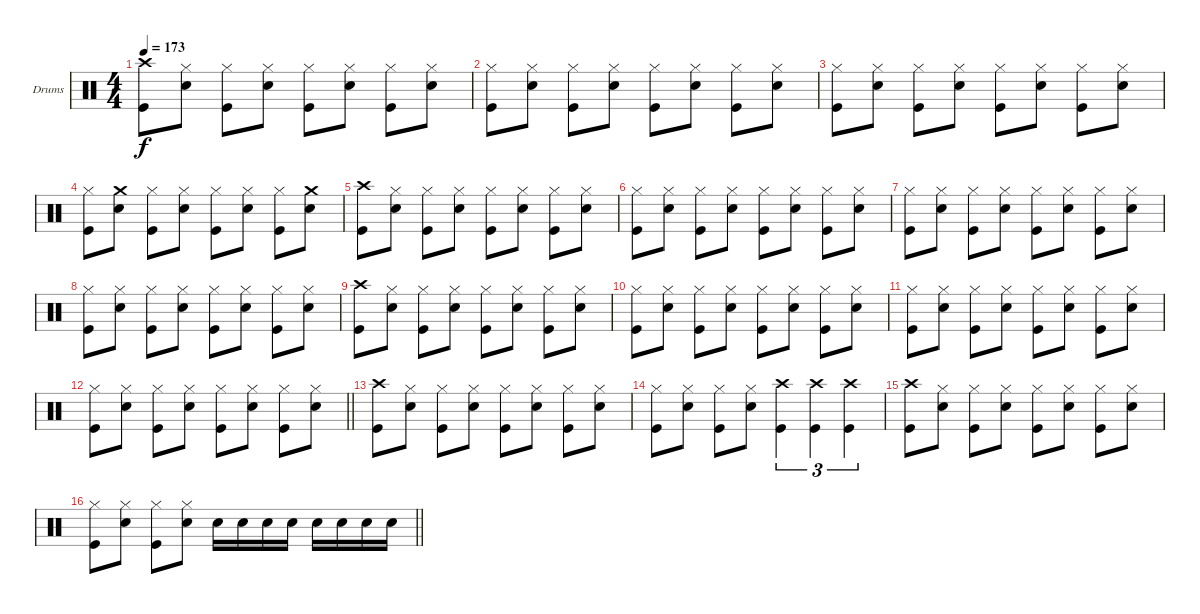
\bracketExtendMode groupsimilarinstruments
\firstSystemTrackNameOrientation horizontal
\otherSystemsTrackNameOrientation horizontal
\track ("Drums" "Drums") {instrument percussion}
\staff {score}
\articulation defaults
\ts (4 4)
\tempo 173
\clef neutral
\ks c
("Crash high (hit)" "Kick (hit)").8{dy f} ("Hi-Hat (closed)" "Snare (hit) 2").8 ("Hi-Hat (closed)" "Kick (hit)").8 ("Hi-Hat (closed)" "Snare (hit) 2").8 ("Hi-Hat (closed)" "Kick (hit)").8 ("Hi-Hat (closed)" "Snare (hit) 2").8 ("Hi-Hat (closed)" "Kick (hit)").8 ("Hi-Hat (closed)" "Snare (hit) 2").8 |
("Hi-Hat (closed)" "Kick (hit)").8 ("Hi-Hat (closed)" "Snare (hit) 2").8 ("Hi-Hat (closed)" "Kick (hit)").8 ("Hi-Hat (closed)" "Snare (hit) 2").8 ("Hi-Hat (closed)" "Kick (hit)").8 ("Hi-Hat (closed)" "Snare (hit) 2").8 ("Hi-Hat (closed)" "Kick (hit)").8 ("Hi-Hat (closed)" "Snare (hit) 2").8 |
("Hi-Hat (closed)" "Kick (hit)").8 ("Hi-Hat (closed)" "Snare (hit) 2").8 ("Hi-Hat (closed)" "Kick (hit)").8 ("Hi-Hat (closed)" "Snare (hit) 2").8 ("Hi-Hat (closed)" "Kick (hit)").8 ("Hi-Hat (closed)" "Snare (hit) 2").8 ("Hi-Hat (closed)" "Kick (hit)").8 ("Hi-Hat (closed)" "Snare (hit) 2").8 |
("Hi-Hat (closed)" "Kick (hit)").8 ("Snare (hit) 2" "Crash medium (hit)").8 ("Hi-Hat (closed)" "Kick (hit)").8 ("Hi-Hat (closed)" "Snare (hit) 2").8 ("Hi-Hat (closed)" "Kick (hit)").8 ("Hi-Hat (closed)" "Snare (hit) 2").8 ("Hi-Hat (closed)" "Kick (hit)").8 ("Snare (hit) 2" "Crash medium (hit)").8 |
("Crash high (hit)" "Kick (hit)").8 ("Hi-Hat (closed)" "Snare (hit) 2").8 ("Hi-Hat (closed)" "Kick (hit)").8 ("Hi-Hat (closed)" "Snare (hit) 2").8 ("Hi-Hat (closed)" "Kick (hit)").8 ("Hi-Hat (closed)" "Snare (hit) 2").8 ("Hi-Hat (closed)" "Kick (hit)").8 ("Hi-Hat (closed)" "Snare (hit) 2").8 |
("Hi-Hat (closed)" "Kick (hit)").8 ("Hi-Hat (closed)" "Snare (hit) 2").8 ("Hi-Hat (closed)" "Kick (hit)").8 ("Hi-Hat (closed)" "Snare (hit) 2").8 ("Hi-Hat (closed)" "Kick (hit)").8 ("Hi-Hat (closed)" "Snare (hit) 2").8 ("Hi-Hat (closed)" "Kick (hit)").8 ("Hi-Hat (closed)" "Snare (hit) 2").8 |
("Hi-Hat (closed)" "Kick (hit)").8 ("Hi-Hat (closed)" "Snare (hit) 2").8 ("Hi-Hat (closed)" "Kick (hit)").8 ("Hi-Hat (closed)" "Snare (hit) 2").8 ("Hi-Hat (closed)" "Kick (hit)").8 ("Hi-Hat (closed)" "Snare (hit) 2").8 ("Hi-Hat (closed)" "Kick (hit)").8 ("Hi-Hat (closed)" "Snare (hit) 2").8 |
("Hi-Hat (closed)" "Kick (hit)").8 ("Hi-Hat (closed)" "Snare (hit) 2").8 ("Hi-Hat (closed)" "Kick (hit)").8 ("Hi-Hat (closed)" "Snare (hit) 2").8 ("Hi-Hat (closed)" "Kick (hit)").8 ("Hi-Hat (closed)" "Snare (hit) 2").8 ("Hi-Hat (closed)" "Kick (hit)").8 ("Hi-Hat (closed)" "Snare (hit) 2").8 |
("Crash high (hit)" "Kick (hit)").8 ("Hi-Hat (closed)" "Snare (hit) 2").8 ("Hi-Hat (closed)" "Kick (hit)").8 ("Hi-Hat (closed)" "Snare (hit) 2").8 ("Hi-Hat (closed)" "Kick (hit)").8 ("Hi-Hat (closed)" "Snare (hit) 2").8 ("Hi-Hat (closed)" "Kick (hit)").8 ("Hi-Hat (closed)" "Snare (hit) 2").8 |
("Hi-Hat (closed)" "Kick (hit)").8 ("Hi-Hat (closed)" "Snare (hit) 2").8 ("Hi-Hat (closed)" "Kick (hit)").8 ("Hi-Hat (closed)" "Snare (hit) 2").8 ("Hi-Hat (closed)" "Kick (hit)").8 ("Hi-Hat (closed)" "Snare (hit) 2").8 ("Hi-Hat (closed)" "Kick (hit)").8 ("Hi-Hat (closed)" "Snare (hit) 2").8 |
("Hi-Hat (closed)" "Kick (hit)").8 ("Hi-Hat (closed)" "Snare (hit) 2").8 ("Hi-Hat (closed)" "Kick (hit)").8 ("Hi-Hat (closed)" "Snare (hit) 2").8 ("Hi-Hat (closed)" "Kick (hit)").8 ("Hi-Hat (closed)" "Snare (hit) 2").8 ("Hi-Hat (closed)" "Kick (hit)").8 ("Hi-Hat (closed)" "Snare (hit) 2").8 |
\barLineRight lightlight
("Hi-Hat (closed)" "Kick (hit)").8 ("Hi-Hat (closed)" "Snare (hit) 2").8 ("Hi-Hat (closed)" "Kick (hit)").8 ("Hi-Hat (closed)" "Snare (hit) 2").8 ("Hi-Hat (closed)" "Kick (hit)").8 ("Hi-Hat (closed)" "Snare (hit) 2").8 ("Hi-Hat (closed)" "Kick (hit)").8 ("Hi-Hat (closed)" "Snare (hit) 2").8 |
("Crash high (hit)" "Kick (hit)").8 ("Hi-Hat (closed)" "Snare (hit) 2").8 ("Hi-Hat (closed)" "Kick (hit)").8 ("Hi-Hat (closed)" "Snare (hit) 2").8 ("Hi-Hat (closed)" "Kick (hit)").8 ("Hi-Hat (closed)" "Snare (hit) 2").8 ("Hi-Hat (closed)" "Kick (hit)").8 ("Hi-Hat (closed)" "Snare (hit) 2").8 |
("Hi-Hat (closed)" "Kick (hit)").8 ("Hi-Hat (closed)" "Snare (hit) 2").8 ("Hi-Hat (closed)" "Kick (hit)").8 ("Hi-Hat (closed)" "Snare (hit) 2").8 ("Crash high (hit)" "Kick (hit)").4{tu (3 2)} ("Crash high (hit)" "Kick (hit)").4{tu (3 2)} ("Crash high (hit)" "Kick (hit)").4{tu (3 2)} |
("Crash high (hit)" "Kick (hit)").8 ("Hi-Hat (closed)" "Snare (hit) 2").8 ("Hi-Hat (closed)" "Kick (hit)").8 ("Hi-Hat (closed)" "Snare (hit) 2").8 ("Hi-Hat (closed)" "Kick (hit)").8 ("Hi-Hat (closed)" "Snare (hit) 2").8 ("Hi-Hat (closed)" "Kick (hit)").8 ("Hi-Hat (closed)" "Snare (hit) 2").8 |
\barLineRight lightlight
("Hi-Hat (closed)" "Kick (hit)").8 ("Hi-Hat (closed)" "Snare (hit) 2").8 ("Hi-Hat (closed)" "Kick (hit)").8 ("Hi-Hat (closed)" "Snare (hit) 2").8 "Snare (hit) 2".16 "Snare (hit) 2".16 "Snare (hit) 2".16 "Snare (hit) 2".16 "Snare (hit) 2".16 "Snare (hit) 2".16 "Snare (hit) 2".16 "Snare (hit) 2".16
